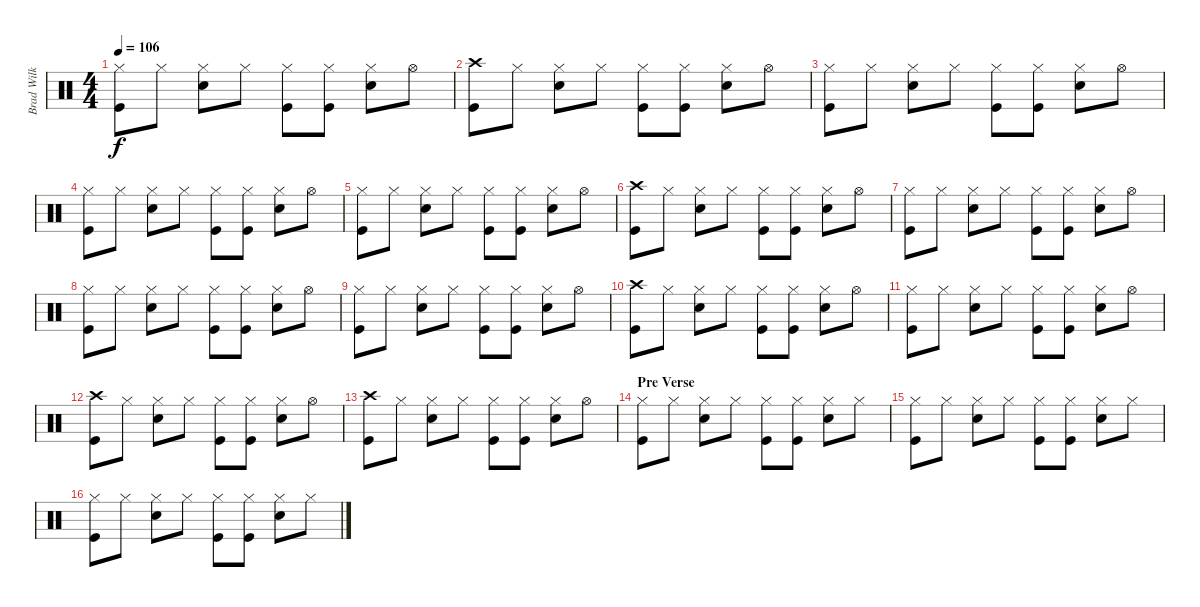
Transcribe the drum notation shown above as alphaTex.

\track ("Brad Wilk" "Brad Wilk") {instrument percussion}
\staff {score}
\articulation defaults
\ts (4 4)
\tempo 106
\clef neutral
\ks c
("Hi-Hat (closed)" "Kick (hit)").8{dy f} "Hi-Hat (closed)".8 ("Hi-Hat (closed)" "Electric Snare (hit)").8 "Hi-Hat (closed)".8 ("Hi-Hat (closed)" "Kick (hit)").8 ("Hi-Hat (closed)" "Kick (hit)").8 ("Hi-Hat (closed)" "Electric Snare (hit)").8 "Hi-Hat (open)".8 |
("Crash high (hit)" "Kick (hit)").8 "Hi-Hat (closed)".8 ("Hi-Hat (closed)" "Electric Snare (hit)").8 "Hi-Hat (closed)".8 ("Hi-Hat (closed)" "Kick (hit)").8 ("Hi-Hat (closed)" "Kick (hit)").8 ("Hi-Hat (closed)" "Electric Snare (hit)").8 "Hi-Hat (open)".8 |
("Hi-Hat (closed)" "Kick (hit)").8 "Hi-Hat (closed)".8 ("Hi-Hat (closed)" "Electric Snare (hit)").8 "Hi-Hat (closed)".8 ("Hi-Hat (closed)" "Kick (hit)").8 ("Hi-Hat (closed)" "Kick (hit)").8 ("Hi-Hat (closed)" "Electric Snare (hit)").8 "Hi-Hat (open)".8 |
("Hi-Hat (closed)" "Kick (hit)").8 "Hi-Hat (closed)".8 ("Hi-Hat (closed)" "Electric Snare (hit)").8 "Hi-Hat (closed)".8 ("Hi-Hat (closed)" "Kick (hit)").8 ("Hi-Hat (closed)" "Kick (hit)").8 ("Hi-Hat (closed)" "Electric Snare (hit)").8 "Hi-Hat (open)".8 |
("Hi-Hat (closed)" "Kick (hit)").8 "Hi-Hat (closed)".8 ("Hi-Hat (closed)" "Electric Snare (hit)").8 "Hi-Hat (closed)".8 ("Hi-Hat (closed)" "Kick (hit)").8 ("Hi-Hat (closed)" "Kick (hit)").8 ("Hi-Hat (closed)" "Electric Snare (hit)").8 "Hi-Hat (open)".8 |
("Crash high (hit)" "Kick (hit)").8 "Hi-Hat (closed)".8 ("Hi-Hat (closed)" "Electric Snare (hit)").8 "Hi-Hat (closed)".8 ("Hi-Hat (closed)" "Kick (hit)").8 ("Hi-Hat (closed)" "Kick (hit)").8 ("Hi-Hat (closed)" "Electric Snare (hit)").8 "Hi-Hat (open)".8 |
("Hi-Hat (closed)" "Kick (hit)").8 "Hi-Hat (closed)".8 ("Hi-Hat (closed)" "Electric Snare (hit)").8 "Hi-Hat (closed)".8 ("Hi-Hat (closed)" "Kick (hit)").8 ("Hi-Hat (closed)" "Kick (hit)").8 ("Hi-Hat (closed)" "Electric Snare (hit)").8 "Hi-Hat (open)".8 |
("Hi-Hat (closed)" "Kick (hit)").8 "Hi-Hat (closed)".8 ("Hi-Hat (closed)" "Electric Snare (hit)").8 "Hi-Hat (closed)".8 ("Hi-Hat (closed)" "Kick (hit)").8 ("Hi-Hat (closed)" "Kick (hit)").8 ("Hi-Hat (closed)" "Electric Snare (hit)").8 "Hi-Hat (open)".8 |
("Hi-Hat (closed)" "Kick (hit)").8 "Hi-Hat (closed)".8 ("Hi-Hat (closed)" "Electric Snare (hit)").8 "Hi-Hat (closed)".8 ("Hi-Hat (closed)" "Kick (hit)").8 ("Hi-Hat (closed)" "Kick (hit)").8 ("Hi-Hat (closed)" "Electric Snare (hit)").8 "Hi-Hat (open)".8 |
("Crash high (hit)" "Kick (hit)").8 "Hi-Hat (closed)".8 ("Hi-Hat (closed)" "Electric Snare (hit)").8 "Hi-Hat (closed)".8 ("Hi-Hat (closed)" "Kick (hit)").8 ("Hi-Hat (closed)" "Kick (hit)").8 ("Hi-Hat (closed)" "Electric Snare (hit)").8 "Hi-Hat (open)".8 |
("Hi-Hat (closed)" "Kick (hit)").8 "Hi-Hat (closed)".8 ("Hi-Hat (closed)" "Electric Snare (hit)").8 "Hi-Hat (closed)".8 ("Hi-Hat (closed)" "Kick (hit)").8 ("Hi-Hat (closed)" "Kick (hit)").8 ("Hi-Hat (closed)" "Electric Snare (hit)").8 "Hi-Hat (open)".8 |
("Crash high (hit)" "Kick (hit)").8 "Hi-Hat (closed)".8 ("Hi-Hat (closed)" "Electric Snare (hit)").8 "Hi-Hat (closed)".8 ("Hi-Hat (closed)" "Kick (hit)").8 ("Hi-Hat (closed)" "Kick (hit)").8 ("Hi-Hat (closed)" "Electric Snare (hit)").8 "Hi-Hat (open)".8 |
("Crash high (hit)" "Kick (hit)").8 "Hi-Hat (closed)".8 ("Hi-Hat (closed)" "Electric Snare (hit)").8 "Hi-Hat (closed)".8 ("Hi-Hat (closed)" "Kick (hit)").8 ("Hi-Hat (closed)" "Kick (hit)").8 ("Hi-Hat (closed)" "Electric Snare (hit)").8 "Hi-Hat (open)".8 |
\section ("" "Pre Verse")
("Hi-Hat (closed)" "Kick (hit)").8 "Hi-Hat (closed)".8 ("Hi-Hat (closed)" "Electric Snare (hit)").8 "Hi-Hat (closed)".8 ("Hi-Hat (closed)" "Kick (hit)").8 ("Hi-Hat (closed)" "Kick (hit)").8 ("Hi-Hat (closed)" "Electric Snare (hit)").8 "Hi-Hat (closed)".8 |
("Hi-Hat (closed)" "Kick (hit)").8 "Hi-Hat (closed)".8 ("Hi-Hat (closed)" "Electric Snare (hit)").8 "Hi-Hat (closed)".8 ("Hi-Hat (closed)" "Kick (hit)").8 ("Hi-Hat (closed)" "Kick (hit)").8 ("Hi-Hat (closed)" "Electric Snare (hit)").8 "Hi-Hat (closed)".8 |
("Hi-Hat (closed)" "Kick (hit)").8 "Hi-Hat (closed)".8 ("Hi-Hat (closed)" "Electric Snare (hit)").8 "Hi-Hat (closed)".8 ("Hi-Hat (closed)" "Kick (hit)").8 ("Hi-Hat (closed)" "Kick (hit)").8 ("Hi-Hat (closed)" "Electric Snare (hit)").8 "Hi-Hat (closed)".8
